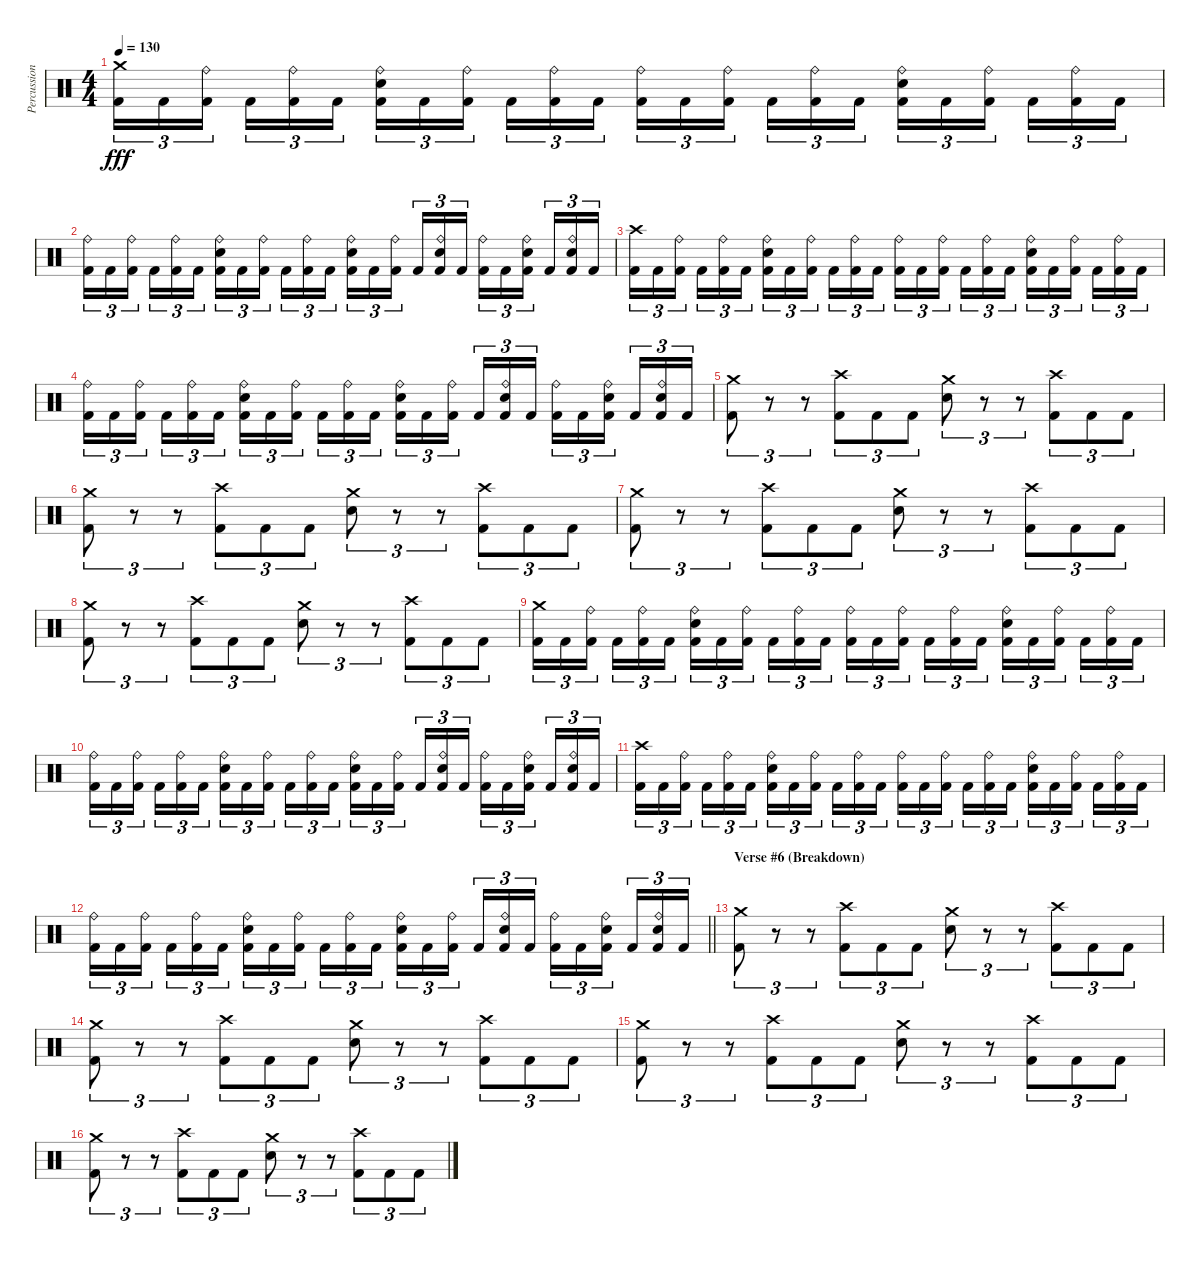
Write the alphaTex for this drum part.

\track ("Percussions" "Percussion") {instrument percussion}
\staff {score}
\articulation defaults
\ts (4 4)
\tempo 130
\clef neutral
\ks c
("Crash medium (hit)" "Kick (hit) 2").16{tu (3 2) dy fff} "Kick (hit) 2".16{tu (3 2)} ("Ride (bell)" "Kick (hit) 2").16{tu (3 2) beam splitsecondary} "Kick (hit) 2".16{tu (3 2)} ("Ride (bell)" "Kick (hit) 2").16{tu (3 2)} "Kick (hit) 2".16{tu (3 2)} ("Ride (bell)" "Snare (hit) 2" "Kick (hit) 2").16{tu (3 2)} "Kick (hit) 2".16{tu (3 2)} ("Ride (bell)" "Kick (hit) 2").16{tu (3 2) beam splitsecondary} "Kick (hit) 2".16{tu (3 2)} ("Ride (bell)" "Kick (hit) 2").16{tu (3 2)} "Kick (hit) 2".16{tu (3 2)} ("Ride (bell)" "Kick (hit) 2").16{tu (3 2)} "Kick (hit) 2".16{tu (3 2)} ("Ride (bell)" "Kick (hit) 2").16{tu (3 2) beam splitsecondary} "Kick (hit) 2".16{tu (3 2)} ("Ride (bell)" "Kick (hit) 2").16{tu (3 2)} "Kick (hit) 2".16{tu (3 2)} ("Ride (bell)" "Snare (hit) 2" "Kick (hit) 2").16{tu (3 2)} "Kick (hit) 2".16{tu (3 2)} ("Ride (bell)" "Kick (hit) 2").16{tu (3 2) beam splitsecondary} "Kick (hit) 2".16{tu (3 2)} ("Ride (bell)" "Kick (hit) 2").16{tu (3 2)} "Kick (hit) 2".16{tu (3 2)} |
("Ride (bell)" "Kick (hit) 2").16{tu (3 2)} "Kick (hit) 2".16{tu (3 2)} ("Ride (bell)" "Kick (hit) 2").16{tu (3 2) beam splitsecondary} "Kick (hit) 2".16{tu (3 2)} ("Ride (bell)" "Kick (hit) 2").16{tu (3 2)} "Kick (hit) 2".16{tu (3 2)} ("Ride (bell)" "Snare (hit) 2" "Kick (hit) 2").16{tu (3 2)} "Kick (hit) 2".16{tu (3 2)} ("Ride (bell)" "Kick (hit) 2").16{tu (3 2) beam splitsecondary} "Kick (hit) 2".16{tu (3 2)} ("Ride (bell)" "Kick (hit) 2").16{tu (3 2)} "Kick (hit) 2".16{tu (3 2)} ("Ride (bell)" "Snare (hit) 2" "Kick (hit) 2").16{tu (3 2)} "Kick (hit) 2".16{tu (3 2)} ("Ride (bell)" "Kick (hit) 2").16{tu (3 2) beam splitsecondary} "Kick (hit) 2".16{tu (3 2)} ("Ride (bell)" "Snare (hit) 2" "Kick (hit) 2").16{tu (3 2)} "Kick (hit) 2".16{tu (3 2)} ("Ride (bell)" "Kick (hit) 2").16{tu (3 2)} "Kick (hit) 2".16{tu (3 2)} ("Ride (bell)" "Snare (hit) 2" "Kick (hit) 2").16{tu (3 2) beam splitsecondary} "Kick (hit) 2".16{tu (3 2)} ("Ride (bell)" "Snare (hit) 2" "Kick (hit) 2").16{tu (3 2)} "Kick (hit) 2".16{tu (3 2)} |
("Crash high (hit)" "Kick (hit) 2").16{tu (3 2)} "Kick (hit) 2".16{tu (3 2)} ("Ride (bell)" "Kick (hit) 2").16{tu (3 2) beam splitsecondary} "Kick (hit) 2".16{tu (3 2)} ("Ride (bell)" "Kick (hit) 2").16{tu (3 2)} "Kick (hit) 2".16{tu (3 2)} ("Ride (bell)" "Snare (hit) 2" "Kick (hit) 2").16{tu (3 2)} "Kick (hit) 2".16{tu (3 2)} ("Ride (bell)" "Kick (hit) 2").16{tu (3 2) beam splitsecondary} "Kick (hit) 2".16{tu (3 2)} ("Ride (bell)" "Kick (hit) 2").16{tu (3 2)} "Kick (hit) 2".16{tu (3 2)} ("Ride (bell)" "Kick (hit) 2").16{tu (3 2)} "Kick (hit) 2".16{tu (3 2)} ("Ride (bell)" "Kick (hit) 2").16{tu (3 2) beam splitsecondary} "Kick (hit) 2".16{tu (3 2)} ("Ride (bell)" "Kick (hit) 2").16{tu (3 2)} "Kick (hit) 2".16{tu (3 2)} ("Ride (bell)" "Snare (hit) 2" "Kick (hit) 2").16{tu (3 2)} "Kick (hit) 2".16{tu (3 2)} ("Ride (bell)" "Kick (hit) 2").16{tu (3 2) beam splitsecondary} "Kick (hit) 2".16{tu (3 2)} ("Ride (bell)" "Kick (hit) 2").16{tu (3 2)} "Kick (hit) 2".16{tu (3 2)} |
("Ride (bell)" "Kick (hit) 2").16{tu (3 2)} "Kick (hit) 2".16{tu (3 2)} ("Ride (bell)" "Kick (hit) 2").16{tu (3 2) beam splitsecondary} "Kick (hit) 2".16{tu (3 2)} ("Ride (bell)" "Kick (hit) 2").16{tu (3 2)} "Kick (hit) 2".16{tu (3 2)} ("Ride (bell)" "Snare (hit) 2" "Kick (hit) 2").16{tu (3 2)} "Kick (hit) 2".16{tu (3 2)} ("Ride (bell)" "Kick (hit) 2").16{tu (3 2) beam splitsecondary} "Kick (hit) 2".16{tu (3 2)} ("Ride (bell)" "Kick (hit) 2").16{tu (3 2)} "Kick (hit) 2".16{tu (3 2)} ("Ride (bell)" "Snare (hit) 2" "Kick (hit) 2").16{tu (3 2)} "Kick (hit) 2".16{tu (3 2)} ("Ride (bell)" "Kick (hit) 2").16{tu (3 2) beam splitsecondary} "Kick (hit) 2".16{tu (3 2)} ("Ride (bell)" "Snare (hit) 2" "Kick (hit) 2").16{tu (3 2)} "Kick (hit) 2".16{tu (3 2)} ("Ride (bell)" "Kick (hit) 2").16{tu (3 2)} "Kick (hit) 2".16{tu (3 2)} ("Ride (bell)" "Snare (hit) 2" "Kick (hit) 2").16{tu (3 2) beam splitsecondary} "Kick (hit) 2".16{tu (3 2)} ("Ride (bell)" "Snare (hit) 2" "Kick (hit) 2").16{tu (3 2)} "Kick (hit) 2".16{tu (3 2)} |
("Crash medium (hit)" "Kick (hit) 2").8{tu (3 2)} r.8{tu (3 2)} r.8{tu (3 2)} ("Crash high (hit)" "Kick (hit) 2").8{tu (3 2)} "Kick (hit) 2".8{tu (3 2)} "Kick (hit) 2".8{tu (3 2)} ("Crash medium (hit)" "Snare (hit) 2").8{tu (3 2)} r.8{tu (3 2)} r.8{tu (3 2)} ("Crash high (hit)" "Kick (hit) 2").8{tu (3 2)} "Kick (hit) 2".8{tu (3 2)} "Kick (hit) 2".8{tu (3 2)} |
("Crash medium (hit)" "Kick (hit) 2").8{tu (3 2)} r.8{tu (3 2)} r.8{tu (3 2)} ("Crash high (hit)" "Kick (hit) 2").8{tu (3 2)} "Kick (hit) 2".8{tu (3 2)} "Kick (hit) 2".8{tu (3 2)} ("Crash medium (hit)" "Snare (hit) 2").8{tu (3 2)} r.8{tu (3 2)} r.8{tu (3 2)} ("Crash high (hit)" "Kick (hit) 2").8{tu (3 2)} "Kick (hit) 2".8{tu (3 2)} "Kick (hit) 2".8{tu (3 2)} |
("Crash medium (hit)" "Kick (hit) 2").8{tu (3 2)} r.8{tu (3 2)} r.8{tu (3 2)} ("Crash high (hit)" "Kick (hit) 2").8{tu (3 2)} "Kick (hit) 2".8{tu (3 2)} "Kick (hit) 2".8{tu (3 2)} ("Crash medium (hit)" "Snare (hit) 2").8{tu (3 2)} r.8{tu (3 2)} r.8{tu (3 2)} ("Crash high (hit)" "Kick (hit) 2").8{tu (3 2)} "Kick (hit) 2".8{tu (3 2)} "Kick (hit) 2".8{tu (3 2)} |
("Crash medium (hit)" "Kick (hit) 2").8{tu (3 2)} r.8{tu (3 2)} r.8{tu (3 2)} ("Crash high (hit)" "Kick (hit) 2").8{tu (3 2)} "Kick (hit) 2".8{tu (3 2)} "Kick (hit) 2".8{tu (3 2)} ("Crash medium (hit)" "Snare (hit) 2").8{tu (3 2)} r.8{tu (3 2)} r.8{tu (3 2)} ("Crash high (hit)" "Kick (hit) 2").8{tu (3 2)} "Kick (hit) 2".8{tu (3 2)} "Kick (hit) 2".8{tu (3 2)} |
("Crash medium (hit)" "Kick (hit) 2").16{tu (3 2)} "Kick (hit) 2".16{tu (3 2)} ("Ride (bell)" "Kick (hit) 2").16{tu (3 2) beam splitsecondary} "Kick (hit) 2".16{tu (3 2)} ("Ride (bell)" "Kick (hit) 2").16{tu (3 2)} "Kick (hit) 2".16{tu (3 2)} ("Ride (bell)" "Snare (hit) 2" "Kick (hit) 2").16{tu (3 2)} "Kick (hit) 2".16{tu (3 2)} ("Ride (bell)" "Kick (hit) 2").16{tu (3 2) beam splitsecondary} "Kick (hit) 2".16{tu (3 2)} ("Ride (bell)" "Kick (hit) 2").16{tu (3 2)} "Kick (hit) 2".16{tu (3 2)} ("Ride (bell)" "Kick (hit) 2").16{tu (3 2)} "Kick (hit) 2".16{tu (3 2)} ("Ride (bell)" "Kick (hit) 2").16{tu (3 2) beam splitsecondary} "Kick (hit) 2".16{tu (3 2)} ("Ride (bell)" "Kick (hit) 2").16{tu (3 2)} "Kick (hit) 2".16{tu (3 2)} ("Ride (bell)" "Snare (hit) 2" "Kick (hit) 2").16{tu (3 2)} "Kick (hit) 2".16{tu (3 2)} ("Ride (bell)" "Kick (hit) 2").16{tu (3 2) beam splitsecondary} "Kick (hit) 2".16{tu (3 2)} ("Ride (bell)" "Kick (hit) 2").16{tu (3 2)} "Kick (hit) 2".16{tu (3 2)} |
("Ride (bell)" "Kick (hit) 2").16{tu (3 2)} "Kick (hit) 2".16{tu (3 2)} ("Ride (bell)" "Kick (hit) 2").16{tu (3 2) beam splitsecondary} "Kick (hit) 2".16{tu (3 2)} ("Ride (bell)" "Kick (hit) 2").16{tu (3 2)} "Kick (hit) 2".16{tu (3 2)} ("Ride (bell)" "Snare (hit) 2" "Kick (hit) 2").16{tu (3 2)} "Kick (hit) 2".16{tu (3 2)} ("Ride (bell)" "Kick (hit) 2").16{tu (3 2) beam splitsecondary} "Kick (hit) 2".16{tu (3 2)} ("Ride (bell)" "Kick (hit) 2").16{tu (3 2)} "Kick (hit) 2".16{tu (3 2)} ("Ride (bell)" "Snare (hit) 2" "Kick (hit) 2").16{tu (3 2)} "Kick (hit) 2".16{tu (3 2)} ("Ride (bell)" "Kick (hit) 2").16{tu (3 2) beam splitsecondary} "Kick (hit) 2".16{tu (3 2)} ("Ride (bell)" "Snare (hit) 2" "Kick (hit) 2").16{tu (3 2)} "Kick (hit) 2".16{tu (3 2)} ("Ride (bell)" "Kick (hit) 2").16{tu (3 2)} "Kick (hit) 2".16{tu (3 2)} ("Ride (bell)" "Snare (hit) 2" "Kick (hit) 2").16{tu (3 2) beam splitsecondary} "Kick (hit) 2".16{tu (3 2)} ("Ride (bell)" "Snare (hit) 2" "Kick (hit) 2").16{tu (3 2)} "Kick (hit) 2".16{tu (3 2)} |
("Crash high (hit)" "Kick (hit) 2").16{tu (3 2)} "Kick (hit) 2".16{tu (3 2)} ("Ride (bell)" "Kick (hit) 2").16{tu (3 2) beam splitsecondary} "Kick (hit) 2".16{tu (3 2)} ("Ride (bell)" "Kick (hit) 2").16{tu (3 2)} "Kick (hit) 2".16{tu (3 2)} ("Ride (bell)" "Snare (hit) 2" "Kick (hit) 2").16{tu (3 2)} "Kick (hit) 2".16{tu (3 2)} ("Ride (bell)" "Kick (hit) 2").16{tu (3 2) beam splitsecondary} "Kick (hit) 2".16{tu (3 2)} ("Ride (bell)" "Kick (hit) 2").16{tu (3 2)} "Kick (hit) 2".16{tu (3 2)} ("Ride (bell)" "Kick (hit) 2").16{tu (3 2)} "Kick (hit) 2".16{tu (3 2)} ("Ride (bell)" "Kick (hit) 2").16{tu (3 2) beam splitsecondary} "Kick (hit) 2".16{tu (3 2)} ("Ride (bell)" "Kick (hit) 2").16{tu (3 2)} "Kick (hit) 2".16{tu (3 2)} ("Ride (bell)" "Snare (hit) 2" "Kick (hit) 2").16{tu (3 2)} "Kick (hit) 2".16{tu (3 2)} ("Ride (bell)" "Kick (hit) 2").16{tu (3 2) beam splitsecondary} "Kick (hit) 2".16{tu (3 2)} ("Ride (bell)" "Kick (hit) 2").16{tu (3 2)} "Kick (hit) 2".16{tu (3 2)} |
\barLineRight lightlight
("Ride (bell)" "Kick (hit) 2").16{tu (3 2)} "Kick (hit) 2".16{tu (3 2)} ("Ride (bell)" "Kick (hit) 2").16{tu (3 2) beam splitsecondary} "Kick (hit) 2".16{tu (3 2)} ("Ride (bell)" "Kick (hit) 2").16{tu (3 2)} "Kick (hit) 2".16{tu (3 2)} ("Ride (bell)" "Snare (hit) 2" "Kick (hit) 2").16{tu (3 2)} "Kick (hit) 2".16{tu (3 2)} ("Ride (bell)" "Kick (hit) 2").16{tu (3 2) beam splitsecondary} "Kick (hit) 2".16{tu (3 2)} ("Ride (bell)" "Kick (hit) 2").16{tu (3 2)} "Kick (hit) 2".16{tu (3 2)} ("Ride (bell)" "Snare (hit) 2" "Kick (hit) 2").16{tu (3 2)} "Kick (hit) 2".16{tu (3 2)} ("Ride (bell)" "Kick (hit) 2").16{tu (3 2) beam splitsecondary} "Kick (hit) 2".16{tu (3 2)} ("Ride (bell)" "Snare (hit) 2" "Kick (hit) 2").16{tu (3 2)} "Kick (hit) 2".16{tu (3 2)} ("Ride (bell)" "Kick (hit) 2").16{tu (3 2)} "Kick (hit) 2".16{tu (3 2)} ("Ride (bell)" "Snare (hit) 2" "Kick (hit) 2").16{tu (3 2) beam splitsecondary} "Kick (hit) 2".16{tu (3 2)} ("Ride (bell)" "Snare (hit) 2" "Kick (hit) 2").16{tu (3 2)} "Kick (hit) 2".16{tu (3 2)} |
\section ("" "Verse #6 (Breakdown)")
("Crash medium (hit)" "Kick (hit) 2").8{tu (3 2)} r.8{tu (3 2)} r.8{tu (3 2)} ("Crash high (hit)" "Kick (hit) 2").8{tu (3 2)} "Kick (hit) 2".8{tu (3 2)} "Kick (hit) 2".8{tu (3 2)} ("Crash medium (hit)" "Snare (hit) 2").8{tu (3 2)} r.8{tu (3 2)} r.8{tu (3 2)} ("Crash high (hit)" "Kick (hit) 2").8{tu (3 2)} "Kick (hit) 2".8{tu (3 2)} "Kick (hit) 2".8{tu (3 2)} |
("Crash medium (hit)" "Kick (hit) 2").8{tu (3 2)} r.8{tu (3 2)} r.8{tu (3 2)} ("Crash high (hit)" "Kick (hit) 2").8{tu (3 2)} "Kick (hit) 2".8{tu (3 2)} "Kick (hit) 2".8{tu (3 2)} ("Crash medium (hit)" "Snare (hit) 2").8{tu (3 2)} r.8{tu (3 2)} r.8{tu (3 2)} ("Crash high (hit)" "Kick (hit) 2").8{tu (3 2)} "Kick (hit) 2".8{tu (3 2)} "Kick (hit) 2".8{tu (3 2)} |
("Crash medium (hit)" "Kick (hit) 2").8{tu (3 2)} r.8{tu (3 2)} r.8{tu (3 2)} ("Crash high (hit)" "Kick (hit) 2").8{tu (3 2)} "Kick (hit) 2".8{tu (3 2)} "Kick (hit) 2".8{tu (3 2)} ("Crash medium (hit)" "Snare (hit) 2").8{tu (3 2)} r.8{tu (3 2)} r.8{tu (3 2)} ("Crash high (hit)" "Kick (hit) 2").8{tu (3 2)} "Kick (hit) 2".8{tu (3 2)} "Kick (hit) 2".8{tu (3 2)} |
("Crash medium (hit)" "Kick (hit) 2").8{tu (3 2)} r.8{tu (3 2)} r.8{tu (3 2)} ("Crash high (hit)" "Kick (hit) 2").8{tu (3 2)} "Kick (hit) 2".8{tu (3 2)} "Kick (hit) 2".8{tu (3 2)} ("Crash medium (hit)" "Snare (hit) 2").8{tu (3 2)} r.8{tu (3 2)} r.8{tu (3 2)} ("Crash high (hit)" "Kick (hit) 2").8{tu (3 2)} "Kick (hit) 2".8{tu (3 2)} "Kick (hit) 2".8{tu (3 2)}
